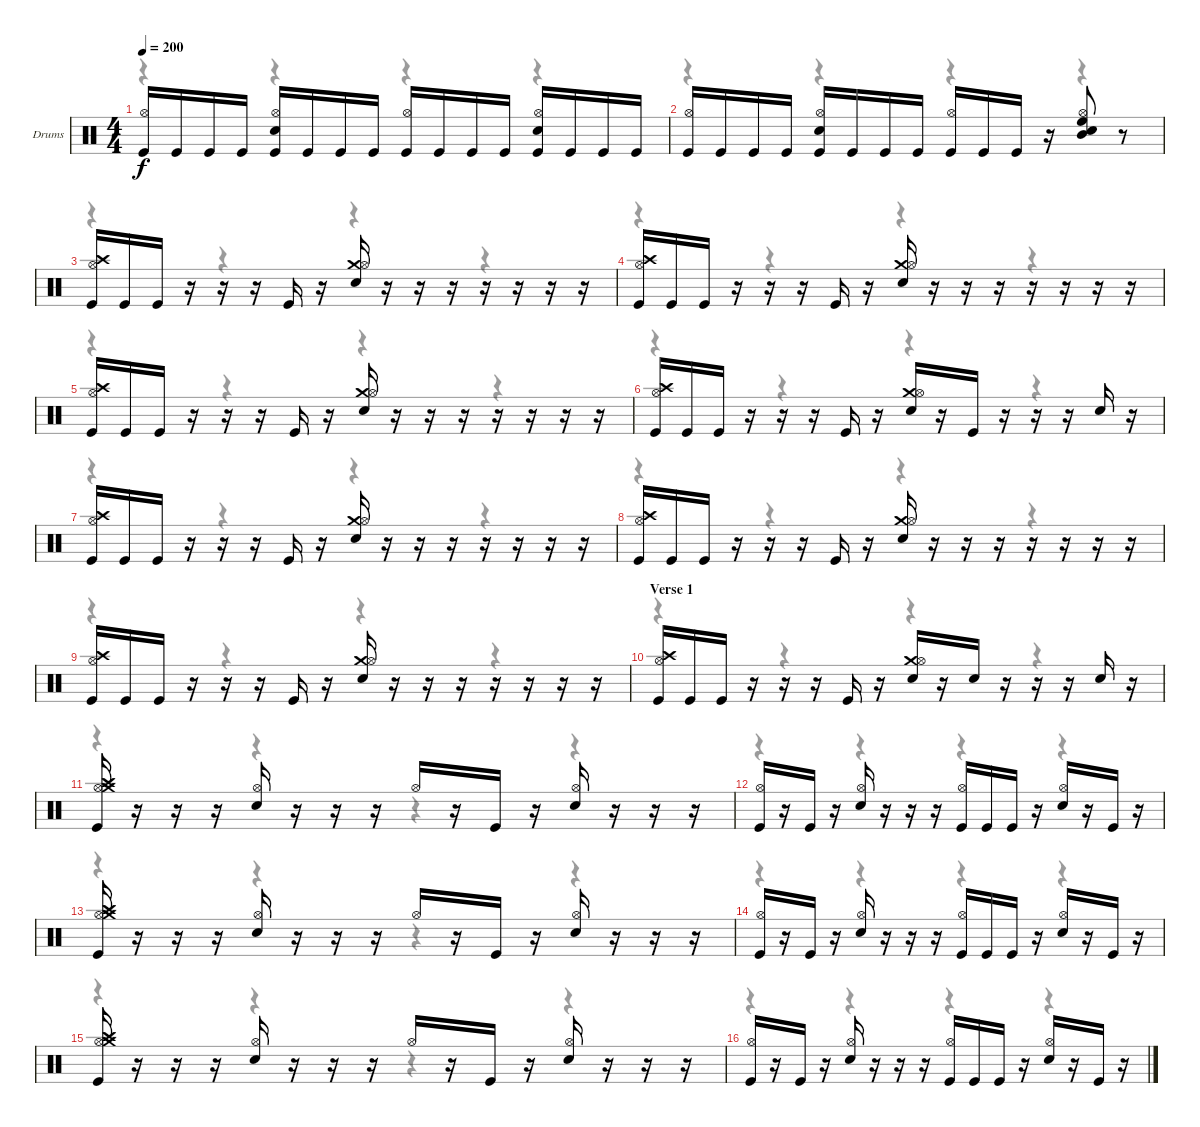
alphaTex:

\bracketExtendMode nobrackets
\firstSystemTrackNameOrientation horizontal
\otherSystemsTrackNameOrientation horizontal
\track ("Drumkit" "Drums") {instrument percussion}
\staff {score}
\articulation defaults
\voice
\ts (4 4)
\tempo 200
\clef neutral
\ks c
("Kick (hit)" "Hi-Hat (open)").16{dy f} "Kick (hit)".16 "Kick (hit)".16 "Kick (hit)".16 ("Kick (hit)" "Hi-Hat (open)" "Snare (hit) 2").16 "Kick (hit)".16 "Kick (hit)".16 "Kick (hit)".16 ("Kick (hit)" "Hi-Hat (open)").16 "Kick (hit)".16 "Kick (hit)".16 "Kick (hit)".16 ("Kick (hit)" "Hi-Hat (open)" "Snare (hit) 2").16 "Kick (hit)".16 "Kick (hit)".16 "Kick (hit)".16 |
("Kick (hit)" "Hi-Hat (open)").16 "Kick (hit)".16 "Kick (hit)".16 "Kick (hit)".16 ("Kick (hit)" "Snare (hit) 2" "Hi-Hat (open)").16 "Kick (hit)".16 "Kick (hit)".16 "Kick (hit)".16 ("Kick (hit)" "Hi-Hat (open)").16 "Kick (hit)".16 "Kick (hit)".16 r.16 ("High Floor Tom (hit)" "Snare (hit) 2" "Hi-Hat (open)" "Mid Tom (hit)").8 r.8 |
("Kick (hit)" "Crash high (hit)" "Hi-Hat (open)").16 "Kick (hit)".16 "Kick (hit)".16 r.16 r.16 r.16 "Kick (hit)".16 r.16 ("Crash medium (hit)" "Snare (hit) 2" "Hi-Hat (open)").16 r.16 r.16 r.16 r.16 r.16 r.16 r.16 |
("Kick (hit)" "Crash high (hit)" "Hi-Hat (open)").16 "Kick (hit)".16 "Kick (hit)".16 r.16 r.16 r.16 "Kick (hit)".16 r.16 ("Crash medium (hit)" "Snare (hit) 2" "Hi-Hat (open)").16 r.16 r.16 r.16 r.16 r.16 r.16 r.16 |
("Kick (hit)" "Crash high (hit)" "Hi-Hat (open)").16 "Kick (hit)".16 "Kick (hit)".16 r.16 r.16 r.16 "Kick (hit)".16 r.16 ("Crash medium (hit)" "Snare (hit) 2" "Hi-Hat (open)").16 r.16 r.16 r.16 r.16 r.16 r.16 r.16 |
("Kick (hit)" "Crash high (hit)" "Hi-Hat (open)").16 "Kick (hit)".16 "Kick (hit)".16 r.16 r.16 r.16 "Kick (hit)".16 r.16 ("Crash medium (hit)" "Snare (hit) 2" "Hi-Hat (open)").16 r.16 "Kick (hit)".16 r.16 r.16 r.16 "Snare (hit) 2".16 r.16 |
("Kick (hit)" "Crash high (hit)" "Hi-Hat (open)").16 "Kick (hit)".16 "Kick (hit)".16 r.16 r.16 r.16 "Kick (hit)".16 r.16 ("Crash medium (hit)" "Snare (hit) 2" "Hi-Hat (open)").16 r.16 r.16 r.16 r.16 r.16 r.16 r.16 |
("Kick (hit)" "Crash high (hit)" "Hi-Hat (open)").16 "Kick (hit)".16 "Kick (hit)".16 r.16 r.16 r.16 "Kick (hit)".16 r.16 ("Crash medium (hit)" "Snare (hit) 2" "Hi-Hat (open)").16 r.16 r.16 r.16 r.16 r.16 r.16 r.16 |
("Kick (hit)" "Crash high (hit)" "Hi-Hat (open)").16 "Kick (hit)".16 "Kick (hit)".16 r.16 r.16 r.16 "Kick (hit)".16 r.16 ("Crash medium (hit)" "Snare (hit) 2" "Hi-Hat (open)").16 r.16 r.16 r.16 r.16 r.16 r.16 r.16 |
\section ("" "Verse 1")
("Kick (hit)" "Crash high (hit)" "Hi-Hat (open)").16 "Kick (hit)".16 "Kick (hit)".16 r.16 r.16 r.16 "Kick (hit)".16 r.16 ("Crash medium (hit)" "Snare (hit) 2" "Hi-Hat (open)").16 r.16 "Snare (hit) 2".16 r.16 r.16 r.16 "Snare (hit) 2".16 r.16 |
("Kick (hit)" "Hi-Hat (open)" "Crash medium (hit)" "Crash high (hit)").16 r.16 r.16 r.16 ("Snare (hit) 2" "Hi-Hat (open)").16 r.16 r.16 r.16 "Hi-Hat (open)".16 r.16 "Kick (hit)".16 r.16 ("Snare (hit) 2" "Hi-Hat (open)").16 r.16 r.16 r.16 |
("Kick (hit)" "Hi-Hat (open)").16 r.16 "Kick (hit)".16 r.16 ("Snare (hit) 2" "Hi-Hat (open)").16 r.16 r.16 r.16 ("Kick (hit)" "Hi-Hat (open)").16 "Kick (hit)".16 "Kick (hit)".16 r.16 ("Snare (hit) 2" "Hi-Hat (open)").16 r.16 "Kick (hit)".16 r.16 |
("Kick (hit)" "Hi-Hat (open)" "Crash medium (hit)" "Crash high (hit)").16 r.16 r.16 r.16 ("Snare (hit) 2" "Hi-Hat (open)").16 r.16 r.16 r.16 "Hi-Hat (open)".16 r.16 "Kick (hit)".16 r.16 ("Snare (hit) 2" "Hi-Hat (open)").16 r.16 r.16 r.16 |
("Kick (hit)" "Hi-Hat (open)").16 r.16 "Kick (hit)".16 r.16 ("Snare (hit) 2" "Hi-Hat (open)").16 r.16 r.16 r.16 ("Kick (hit)" "Hi-Hat (open)").16 "Kick (hit)".16 "Kick (hit)".16 r.16 ("Snare (hit) 2" "Hi-Hat (open)").16 r.16 "Kick (hit)".16 r.16 |
("Kick (hit)" "Hi-Hat (open)" "Crash medium (hit)" "Crash high (hit)").16 r.16 r.16 r.16 ("Snare (hit) 2" "Hi-Hat (open)").16 r.16 r.16 r.16 "Hi-Hat (open)".16 r.16 "Kick (hit)".16 r.16 ("Snare (hit) 2" "Hi-Hat (open)").16 r.16 r.16 r.16 |
("Kick (hit)" "Hi-Hat (open)").16 r.16 "Kick (hit)".16 r.16 ("Snare (hit) 2" "Hi-Hat (open)").16 r.16 r.16 r.16 ("Kick (hit)" "Hi-Hat (open)").16 "Kick (hit)".16 "Kick (hit)".16 r.16 ("Snare (hit) 2" "Hi-Hat (open)").16 r.16 "Kick (hit)".16 r.16
\voice
\clef neutral
\ottava regular
\simile none
\ks c
r.4{dy mf} r.4 r.4 r.4 |
r.4 r.4 r.4 r.4 |
r.4 r.4 r.4 r.4 |
r.4 r.4 r.4 r.4 |
r.4 r.4 r.4 r.4 |
r.4 r.4 r.4 r.4 |
r.4 r.4 r.4 r.4 |
r.4 r.4 r.4 r.4 |
r.4 r.4 r.4 r.4 |
r.4 r.4 r.4 r.4 |
r.4 r.4 r.4 r.4 |
r.4 r.4 r.4 r.4 |
r.4 r.4 r.4 r.4 |
r.4 r.4 r.4 r.4 |
r.4 r.4 r.4 r.4 |
r.4 r.4 r.4 r.4
